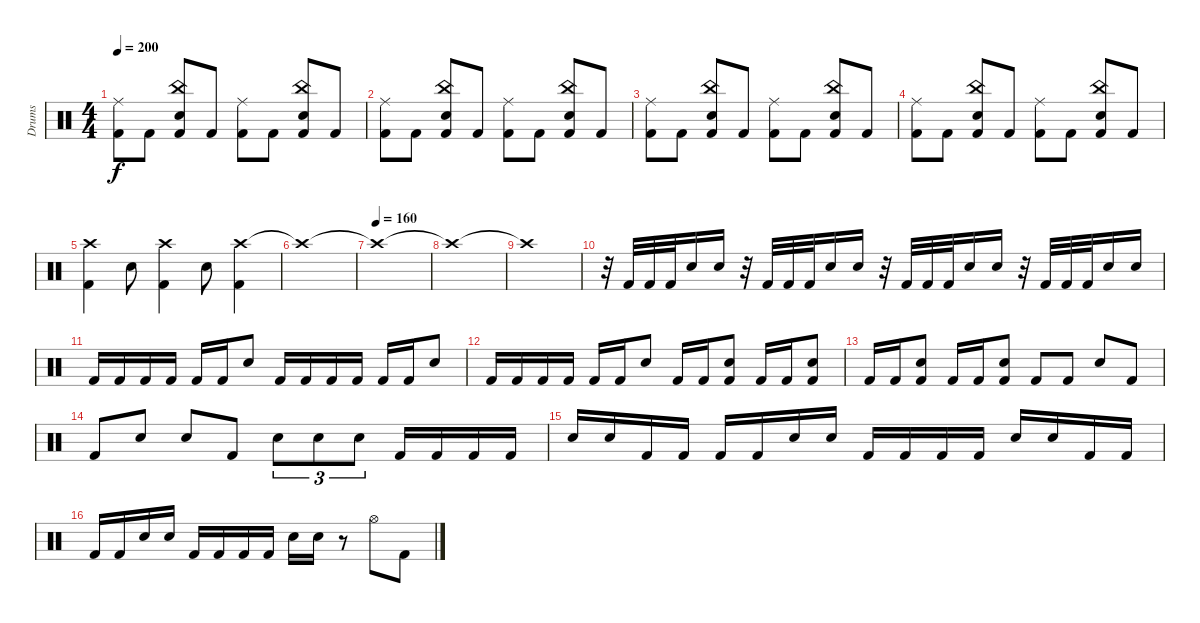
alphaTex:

\track ("Drums" "Drums") {instrument percussion}
\staff {score}
\articulation defaults
\ts (4 4)
\tempo 200
\clef neutral
\ks c
("Ride (middle)" "Kick (hit) 2").8{dy f} "Kick (hit) 2".8 ("China (hit)" "Snare (hit) 2" "Kick (hit) 2").8 "Kick (hit) 2".8 ("Ride (middle)" "Kick (hit) 2").8 "Kick (hit) 2".8 ("China (hit)" "Snare (hit) 2" "Kick (hit) 2").8 "Kick (hit) 2".8 |
("Ride (middle)" "Kick (hit) 2").8 "Kick (hit) 2".8 ("China (hit)" "Snare (hit) 2" "Kick (hit) 2").8 "Kick (hit) 2".8 ("Ride (middle)" "Kick (hit) 2").8 "Kick (hit) 2".8 ("China (hit)" "Snare (hit) 2" "Kick (hit) 2").8 "Kick (hit) 2".8 |
("Ride (middle)" "Kick (hit) 2").8 "Kick (hit) 2".8 ("China (hit)" "Snare (hit) 2" "Kick (hit) 2").8 "Kick (hit) 2".8 ("Ride (middle)" "Kick (hit) 2").8 "Kick (hit) 2".8 ("China (hit)" "Snare (hit) 2" "Kick (hit) 2").8 "Kick (hit) 2".8 |
("Ride (middle)" "Kick (hit) 2").8 "Kick (hit) 2".8 ("China (hit)" "Snare (hit) 2" "Kick (hit) 2").8 "Kick (hit) 2".8 ("Ride (middle)" "Kick (hit) 2").8 "Kick (hit) 2".8 ("China (hit)" "Snare (hit) 2" "Kick (hit) 2").8 "Kick (hit) 2".8 |
("Crash high (hit)" "Kick (hit) 2").4 "Snare (hit) 2".8 ("Crash high (hit)" "Kick (hit) 2").4 "Snare (hit) 2".8 ("Crash high (hit)" "Kick (hit) 2").4 |
"Crash high (hit)"{t}.1 |
\tempo (160)
"Crash high (hit)"{t}.1 |
"Crash high (hit)"{t}.1 |
"Crash high (hit)"{t}.1 |
r.32 "Kick (hit) 2".32 "Kick (hit) 2".32 "Kick (hit) 2".32 "Snare (hit) 2".16 "Snare (hit) 2".16 r.32 "Kick (hit) 2".32 "Kick (hit) 2".32 "Kick (hit) 2".32 "Snare (hit) 2".16 "Snare (hit) 2".16 r.32 "Kick (hit) 2".32 "Kick (hit) 2".32 "Kick (hit) 2".32 "Snare (hit) 2".16 "Snare (hit) 2".16 r.32 "Kick (hit) 2".32 "Kick (hit) 2".32 "Kick (hit) 2".32 "Snare (hit) 2".16 "Snare (hit) 2".16 |
"Kick (hit) 2".16 "Kick (hit) 2".16 "Kick (hit) 2".16 "Kick (hit) 2".16 "Kick (hit) 2".16 "Kick (hit) 2".16 "Snare (hit) 2".8 "Kick (hit) 2".16 "Kick (hit) 2".16 "Kick (hit) 2".16 "Kick (hit) 2".16 "Kick (hit) 2".16 "Kick (hit) 2".16 "Snare (hit) 2".8 |
"Kick (hit) 2".16 "Kick (hit) 2".16 "Kick (hit) 2".16 "Kick (hit) 2".16 "Kick (hit) 2".16 "Kick (hit) 2".16 "Snare (hit) 2".8 "Kick (hit) 2".16 "Kick (hit) 2".16 ("Snare (hit) 2" "Kick (hit) 2").8 "Kick (hit) 2".16 "Kick (hit) 2".16 ("Snare (hit) 2" "Kick (hit) 2").8 |
"Kick (hit) 2".16 "Kick (hit) 2".16 ("Snare (hit) 2" "Kick (hit) 2").8 "Kick (hit) 2".16 "Kick (hit) 2".16 ("Snare (hit) 2" "Kick (hit) 2").8 "Kick (hit) 2".8 "Kick (hit) 2".8 "Snare (hit) 2".8 "Kick (hit) 2".8 |
"Kick (hit) 2".8 "Snare (hit) 2".8 "Snare (hit) 2".8 "Kick (hit) 2".8 "Snare (hit) 2".8{tu (3 2)} "Snare (hit) 2".8{tu (3 2)} "Snare (hit) 2".8{tu (3 2)} "Kick (hit) 2".16 "Kick (hit) 2".16 "Kick (hit) 2".16 "Kick (hit) 2".16 |
"Snare (hit) 2".16 "Snare (hit) 2".16 "Kick (hit) 2".16 "Kick (hit) 2".16 "Kick (hit) 2".16 "Kick (hit) 2".16 "Snare (hit) 2".16 "Snare (hit) 2".16 "Kick (hit) 2".16 "Kick (hit) 2".16 "Kick (hit) 2".16 "Kick (hit) 2".16 "Snare (hit) 2".16 "Snare (hit) 2".16 "Kick (hit) 2".16 "Kick (hit) 2".16 |
"Kick (hit) 2".16 "Kick (hit) 2".16 "Snare (hit) 2".16 "Snare (hit) 2".16 "Kick (hit) 2".16 "Kick (hit) 2".16 "Kick (hit) 2".16 "Kick (hit) 2".16 "Snare (hit) 2".16 "Snare (hit) 2".16 r.8 "Hi-Hat (open)".8 "Kick (hit) 2".8
